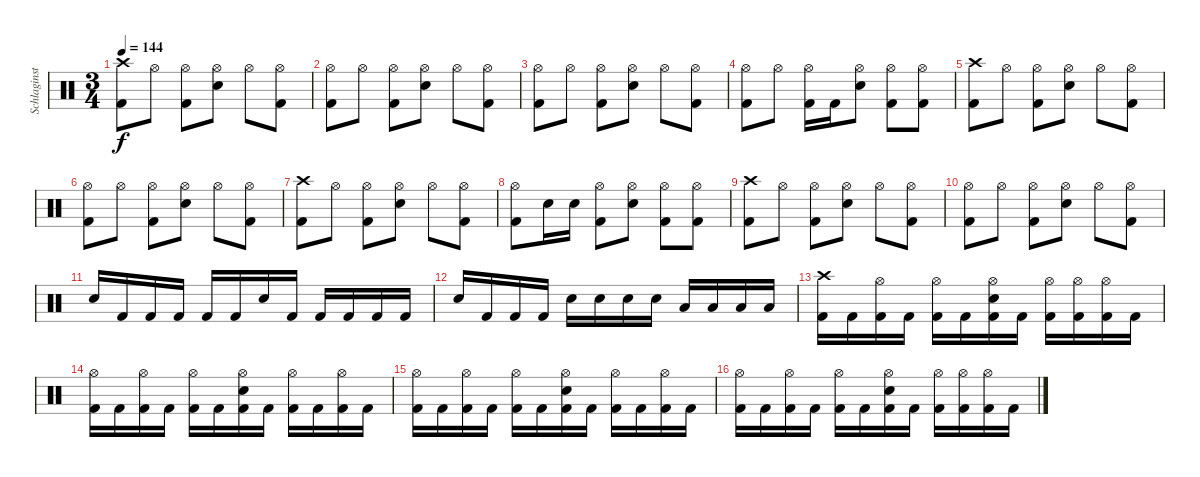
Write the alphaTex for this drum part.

\track ("Schlaginstrumente - Auswahl" "Schlaginst") {instrument percussion}
\staff {score}
\articulation defaults
\ts (3 4)
\tempo 144
\clef neutral
\ks c
("Crash high (hit)" "Kick (hit) 2").8{dy f} "Hi-Hat (open)".8 ("Hi-Hat (open)" "Kick (hit) 2").8 ("Hi-Hat (open)" "Snare (hit) 2").8 "Hi-Hat (open)".8 ("Hi-Hat (open)" "Kick (hit) 2").8 |
("Hi-Hat (open)" "Kick (hit) 2").8 "Hi-Hat (open)".8 ("Hi-Hat (open)" "Kick (hit) 2").8 ("Hi-Hat (open)" "Snare (hit) 2").8 "Hi-Hat (open)".8 ("Hi-Hat (open)" "Kick (hit) 2").8 |
("Hi-Hat (open)" "Kick (hit) 2").8 "Hi-Hat (open)".8 ("Hi-Hat (open)" "Kick (hit) 2").8 ("Hi-Hat (open)" "Snare (hit) 2").8 "Hi-Hat (open)".8 ("Hi-Hat (open)" "Kick (hit) 2").8 |
("Hi-Hat (open)" "Kick (hit) 2").8 "Hi-Hat (open)".8 ("Hi-Hat (open)" "Kick (hit) 2").16 "Kick (hit) 2".16 ("Hi-Hat (open)" "Snare (hit) 2").8 ("Hi-Hat (open)" "Kick (hit) 2").8 ("Hi-Hat (open)" "Kick (hit) 2").8 |
("Crash high (hit)" "Kick (hit) 2").8 "Hi-Hat (open)".8 ("Hi-Hat (open)" "Kick (hit) 2").8 ("Hi-Hat (open)" "Snare (hit) 2").8 "Hi-Hat (open)".8 ("Hi-Hat (open)" "Kick (hit) 2").8 |
("Hi-Hat (open)" "Kick (hit) 2").8 "Hi-Hat (open)".8 ("Hi-Hat (open)" "Kick (hit) 2").8 ("Hi-Hat (open)" "Snare (hit) 2").8 "Hi-Hat (open)".8 ("Hi-Hat (open)" "Kick (hit) 2").8 |
("Crash high (hit)" "Kick (hit) 2").8 "Hi-Hat (open)".8 ("Hi-Hat (open)" "Kick (hit) 2").8 ("Hi-Hat (open)" "Snare (hit) 2").8 "Hi-Hat (open)".8 ("Hi-Hat (open)" "Kick (hit) 2").8 |
("Hi-Hat (open)" "Kick (hit) 2").8 "Snare (hit) 2".16 "Snare (hit) 2".16 ("Hi-Hat (open)" "Kick (hit) 2").8 ("Hi-Hat (open)" "Snare (hit) 2").8 ("Hi-Hat (open)" "Kick (hit) 2").8 ("Hi-Hat (open)" "Kick (hit) 2").8 |
("Crash high (hit)" "Kick (hit) 2").8 "Hi-Hat (open)".8 ("Hi-Hat (open)" "Kick (hit) 2").8 ("Hi-Hat (open)" "Snare (hit) 2").8 "Hi-Hat (open)".8 ("Hi-Hat (open)" "Kick (hit) 2").8 |
("Hi-Hat (open)" "Kick (hit) 2").8 "Hi-Hat (open)".8 ("Hi-Hat (open)" "Kick (hit) 2").8 ("Hi-Hat (open)" "Snare (hit) 2").8 "Hi-Hat (open)".8 ("Hi-Hat (open)" "Kick (hit) 2").8 |
"Snare (hit) 2".16 "Kick (hit) 2".16 "Kick (hit) 2".16 "Kick (hit) 2".16 "Kick (hit) 2".16 "Kick (hit) 2".16 "Snare (hit) 2".16 "Kick (hit) 2".16 "Kick (hit) 2".16 "Kick (hit) 2".16 "Kick (hit) 2".16 "Kick (hit) 2".16 |
"Snare (hit) 2".16 "Kick (hit) 2".16 "Kick (hit) 2".16 "Kick (hit) 2".16 "Snare (hit) 2".16 "Snare (hit) 2".16 "Snare (hit) 2".16 "Snare (hit) 2".16 "Low Tom (hit)".16 "Low Tom (hit)".16 "Low Tom (hit)".16 "Low Tom (hit)".16 |
("Crash high (hit)" "Kick (hit) 2").16 "Kick (hit) 2".16 ("Hi-Hat (open)" "Kick (hit) 2").16 "Kick (hit) 2".16 ("Hi-Hat (open)" "Kick (hit) 2").16 "Kick (hit) 2".16 ("Hi-Hat (open)" "Snare (hit) 2" "Kick (hit) 2").16 "Kick (hit) 2".16 ("Hi-Hat (open)" "Kick (hit) 2").16 ("Hi-Hat (open)" "Kick (hit) 2").16 ("Hi-Hat (open)" "Kick (hit) 2").16 "Kick (hit) 2".16 |
("Hi-Hat (open)" "Kick (hit) 2").16 "Kick (hit) 2".16 ("Hi-Hat (open)" "Kick (hit) 2").16 "Kick (hit) 2".16 ("Hi-Hat (open)" "Kick (hit) 2").16 "Kick (hit) 2".16 ("Hi-Hat (open)" "Snare (hit) 2" "Kick (hit) 2").16 "Kick (hit) 2".16 ("Hi-Hat (open)" "Kick (hit) 2").16 "Kick (hit) 2".16 ("Hi-Hat (open)" "Kick (hit) 2").16 "Kick (hit) 2".16 |
("Hi-Hat (open)" "Kick (hit) 2").16 "Kick (hit) 2".16 ("Hi-Hat (open)" "Kick (hit) 2").16 "Kick (hit) 2".16 ("Hi-Hat (open)" "Kick (hit) 2").16 "Kick (hit) 2".16 ("Hi-Hat (open)" "Snare (hit) 2" "Kick (hit) 2").16 "Kick (hit) 2".16 ("Hi-Hat (open)" "Kick (hit) 2").16 "Kick (hit) 2".16 ("Hi-Hat (open)" "Kick (hit) 2").16 "Kick (hit) 2".16 |
("Hi-Hat (open)" "Kick (hit) 2").16 "Kick (hit) 2".16 ("Hi-Hat (open)" "Kick (hit) 2").16 "Kick (hit) 2".16 ("Hi-Hat (open)" "Kick (hit) 2").16 "Kick (hit) 2".16 ("Hi-Hat (open)" "Snare (hit) 2" "Kick (hit) 2").16 "Kick (hit) 2".16 ("Hi-Hat (open)" "Kick (hit) 2").16 ("Hi-Hat (open)" "Kick (hit) 2").16 ("Hi-Hat (open)" "Kick (hit) 2").16 "Kick (hit) 2".16
